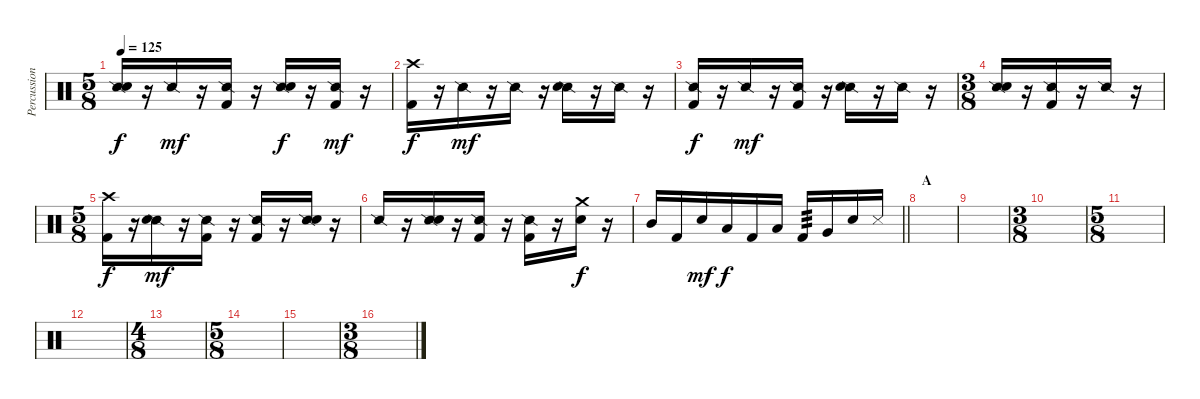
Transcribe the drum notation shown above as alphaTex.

\track ("Percussion" "Percussion") {instrument percussion}
\staff {score}
\articulation defaults
\ts (5 8)
\tempo 125
\clef neutral
\ks c
("Snare (side stick) 2" "Snare (hit) 2").16{dy f} r.16 "Snare (side stick) 2".16{dy mf} r.16 ("Snare (side stick) 2" "Kick (hit) 2").16 r.16 ("Snare (side stick) 2" "Snare (hit) 2").16{dy f} r.16 ("Snare (side stick) 2" "Kick (hit) 2").16{dy mf} r.16 |
("Crash high (hit)" "Kick (hit) 2").16{dy f} r.16 "Snare (side stick) 2".16{dy mf} r.16 "Snare (side stick) 2".16 r.16 ("Snare (side stick) 2" "Snare (hit) 2").16 r.16 "Snare (side stick) 2".16 r.16 |
("Snare (side stick) 2" "Kick (hit) 2").16{dy f} r.16 "Snare (side stick) 2".16{dy mf} r.16 ("Snare (side stick) 2" "Kick (hit) 2").16 r.16 ("Snare (side stick) 2" "Snare (hit) 2").16 r.16 "Snare (side stick) 2".16 r.16 |
\ts (3 8)
("Snare (side stick) 2" "Snare (hit) 2").16 r.16 ("Snare (side stick) 2" "Kick (hit) 2").16 r.16 "Snare (side stick) 2".16 r.16 |
\ts (5 8)
("Crash high (hit)" "Kick (hit) 2").16{dy f} r.16 ("Snare (side stick) 2" "Snare (hit) 2").16{dy mf} r.16 ("Snare (side stick) 2" "Kick (hit) 2").16 r.16 ("Snare (side stick) 2" "Kick (hit) 2").16 r.16 ("Snare (side stick) 2" "Snare (hit) 2").16 r.16 |
"Snare (side stick) 2".16 r.16 ("Snare (side stick) 2" "Snare (hit) 2").16 r.16 ("Snare (side stick) 2" "Kick (hit) 2").16 r.16 ("Snare (side stick) 2" "Kick (hit) 2").16 r.16 ("Crash medium (hit)" "Snare (hit) 2").16{dy f} r.16 |
\barLineRight lightlight "Mid Tom (hit)".16 "Kick (hit) 2".16 "Snare (hit) 2".16{dy mf} "Low Tom (hit)".16{dy f} "Kick (hit) 2".16 "Low Tom (hit)".16 "Kick (hit) 2".16{tp 3} "Very Low Tom (hit)".16 "Snare (hit) 2".16 "Metronome (hit)".16
|
\section ("" "A")
|
|
\ts (3 8)
|
\ts (5 8)
|
|
\ts (4 8)
|
\ts (5 8)
|
|
\ts (3 8)
